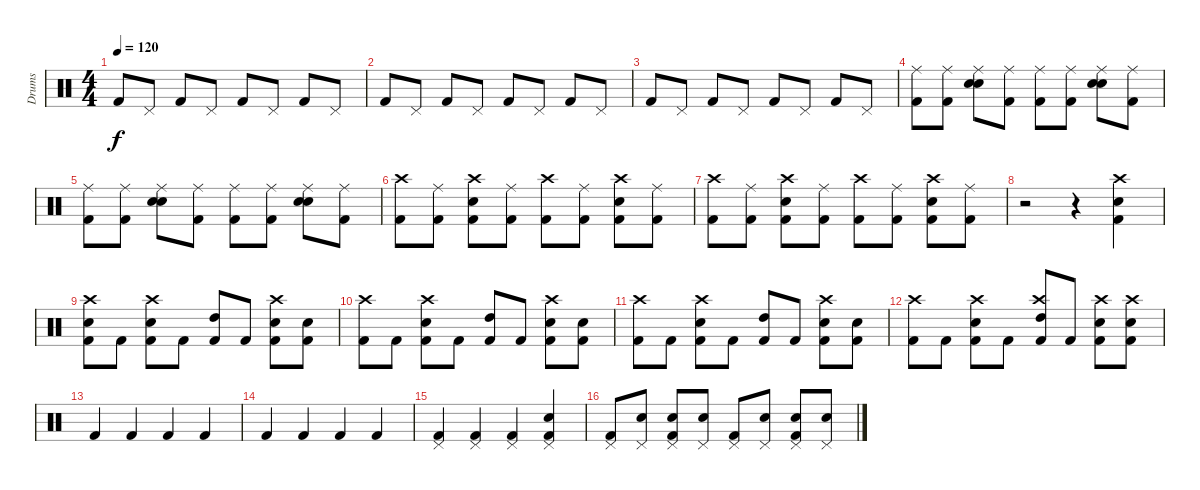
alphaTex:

\track ("Drums" "Drums") {instrument percussion}
\staff {score}
\articulation defaults
\ts (4 4)
\tempo 120
\clef neutral
\ks c "Kick (hit) 2".8{dy f} "Pedal Hi-Hat (hit)".8 "Kick (hit) 2".8 "Pedal Hi-Hat (hit)".8 "Kick (hit) 2".8 "Pedal Hi-Hat (hit)".8 "Kick (hit) 2".8 "Pedal Hi-Hat (hit)".8
|
"Kick (hit) 2".8 "Pedal Hi-Hat (hit)".8 "Kick (hit) 2".8 "Pedal Hi-Hat (hit)".8 "Kick (hit) 2".8 "Pedal Hi-Hat (hit)".8 "Kick (hit) 2".8 "Pedal Hi-Hat (hit)".8 |
"Kick (hit) 2".8 "Pedal Hi-Hat (hit)".8 "Kick (hit) 2".8 "Pedal Hi-Hat (hit)".8 "Kick (hit) 2".8 "Pedal Hi-Hat (hit)".8 "Kick (hit) 2".8 "Pedal Hi-Hat (hit)".8 |
("Ride (middle)" "Kick (hit) 2").8 ("Ride (middle)" "Kick (hit) 2").8 ("Ride (middle)" "Snare (hit) 2" "Snare (hit)").8 ("Ride (middle)" "Kick (hit) 2").8 ("Ride (middle)" "Kick (hit) 2").8 ("Ride (middle)" "Kick (hit) 2").8 ("Ride (middle)" "Snare (hit) 2" "Snare (hit)").8 ("Ride (middle)" "Kick (hit) 2").8 |
("Ride (middle)" "Kick (hit) 2").8 ("Ride (middle)" "Kick (hit) 2").8 ("Ride (middle)" "Snare (hit) 2" "Snare (hit)").8 ("Ride (middle)" "Kick (hit) 2").8 ("Ride (middle)" "Kick (hit) 2").8 ("Ride (middle)" "Kick (hit) 2").8 ("Ride (middle)" "Snare (hit) 2" "Snare (hit)").8 ("Ride (middle)" "Kick (hit) 2").8 |
("Crash high (hit)" "Kick (hit) 2").8 ("Ride (middle)" "Kick (hit) 2").8 ("Crash high (hit)" "Snare (hit) 2" "Kick (hit) 2").8 ("Ride (middle)" "Kick (hit) 2").8 ("Crash high (hit)" "Kick (hit) 2").8 ("Ride (middle)" "Kick (hit) 2").8 ("Crash high (hit)" "Snare (hit) 2" "Kick (hit) 2").8 ("Ride (middle)" "Kick (hit) 2").8 |
("Crash high (hit)" "Kick (hit) 2").8 ("Ride (middle)" "Kick (hit) 2").8 ("Crash high (hit)" "Snare (hit) 2" "Kick (hit) 2").8 ("Ride (middle)" "Kick (hit) 2").8 ("Crash high (hit)" "Kick (hit) 2").8 ("Ride (middle)" "Kick (hit) 2").8 ("Crash high (hit)" "Snare (hit) 2" "Kick (hit) 2").8 ("Ride (middle)" "Kick (hit) 2").8 |
r.2 r.4 ("Crash high (hit)" "Snare (hit) 2" "Kick (hit) 2").4 |
("Crash high (hit)" "Snare (hit) 2" "Kick (hit) 2").8 "Kick (hit) 2".8 ("Crash high (hit)" "Snare (hit) 2" "Kick (hit) 2").8 "Kick (hit) 2".8 ("High Tom (hit)" "Kick (hit) 2").8 "Kick (hit) 2".8 ("Crash high (hit)" "Snare (hit) 2" "Kick (hit) 2").8 ("Snare (hit) 2" "Kick (hit) 2").8 |
("Crash high (hit)" "Kick (hit) 2").8 "Kick (hit) 2".8 ("Crash high (hit)" "Snare (hit) 2" "Kick (hit) 2").8 "Kick (hit) 2".8 ("High Tom (hit)" "Kick (hit) 2").8 "Kick (hit) 2".8 ("Crash high (hit)" "Snare (hit) 2" "Kick (hit) 2").8 ("Snare (hit) 2" "Kick (hit) 2").8 |
("Crash high (hit)" "Kick (hit) 2").8 "Kick (hit) 2".8 ("Crash high (hit)" "Snare (hit) 2" "Kick (hit) 2").8 "Kick (hit) 2".8 ("High Tom (hit)" "Kick (hit) 2").8 "Kick (hit) 2".8 ("Crash high (hit)" "Snare (hit) 2" "Kick (hit) 2").8 ("Snare (hit) 2" "Kick (hit) 2").8 |
("Crash high (hit)" "Kick (hit) 2").8 "Kick (hit) 2".8 ("Crash high (hit)" "Snare (hit) 2" "Kick (hit) 2").8 "Kick (hit) 2".8 ("Crash high (hit)" "High Tom (hit)" "Kick (hit) 2").8 "Kick (hit) 2".8 ("Crash high (hit)" "Snare (hit) 2" "Kick (hit) 2").8 ("Crash high (hit)" "Snare (hit) 2" "Kick (hit) 2").8 |
"Kick (hit) 2".4 "Kick (hit) 2".4 "Kick (hit) 2".4 "Kick (hit) 2".4 |
"Kick (hit) 2".4 "Kick (hit) 2".4 "Kick (hit) 2".4 "Kick (hit) 2".4 |
("Pedal Hi-Hat (hit)" "Kick (hit) 2").4 ("Pedal Hi-Hat (hit)" "Kick (hit) 2").4 ("Pedal Hi-Hat (hit)" "Kick (hit) 2").4 ("Pedal Hi-Hat (hit)" "Snare (hit) 2" "Kick (hit) 2").4 |
("Pedal Hi-Hat (hit)" "Kick (hit) 2").8 ("Pedal Hi-Hat (hit)" "Snare (hit)").8 ("Pedal Hi-Hat (hit)" "Snare (hit) 2" "Kick (hit) 2").8 ("Pedal Hi-Hat (hit)" "Snare (hit)").8 ("Pedal Hi-Hat (hit)" "Kick (hit) 2").8 ("Pedal Hi-Hat (hit)" "Snare (hit)").8 ("Pedal Hi-Hat (hit)" "Snare (hit) 2" "Kick (hit) 2").8 ("Pedal Hi-Hat (hit)" "Snare (hit)").8
